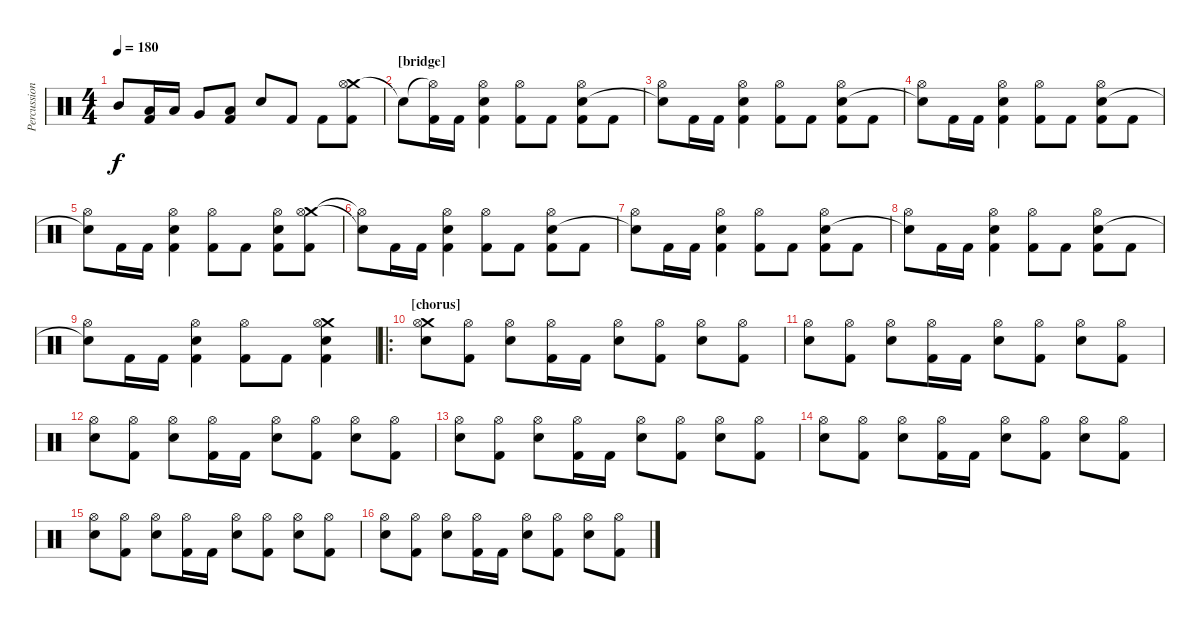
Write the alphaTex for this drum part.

\track ("Percussion" "Percussion") {instrument percussion}
\staff {score}
\articulation defaults
\ts (4 4)
\tempo 180
\clef neutral
\ks c "Mid Tom (hit)".8{dy f}
("Low Tom (hit)" "Kick (hit) 2").16 "Low Tom (hit)".16 "Very Low Tom (hit)".8 ("Low Floor Tom (hit)" "Kick (hit) 2").8 "Electric Snare (hit)".8 "Kick (hit) 2".8 "Kick (hit) 2".8 ("Crash medium (hit)" "Hi-Hat (open)" "Kick (hit) 2").8 |
\section ("" "[bridge]")
"Snare (hit)"{t}.8 ("Hi-Hat (open)"{t} "Kick (hit) 2").16 "Kick (hit) 2".16 ("Hi-Hat (open)" "Electric Snare (hit)" "Kick (hit) 2").4 ("Hi-Hat (open)" "Kick (hit) 2").8 "Kick (hit) 2".8 ("Hi-Hat (open)" "Electric Snare (hit)" "Kick (hit) 2").8 "Kick (hit) 2".8 |
("Hi-Hat (open)" "Snare (hit)"{t}).8 "Kick (hit) 2".16 "Kick (hit) 2".16 ("Hi-Hat (open)" "Electric Snare (hit)" "Kick (hit) 2").4 ("Hi-Hat (open)" "Kick (hit) 2").8 "Kick (hit) 2".8 ("Hi-Hat (open)" "Electric Snare (hit)" "Kick (hit) 2").8 "Kick (hit) 2".8 |
("Hi-Hat (open)" "Snare (hit)"{t}).8 "Kick (hit) 2".16 "Kick (hit) 2".16 ("Hi-Hat (open)" "Electric Snare (hit)" "Kick (hit) 2").4 ("Hi-Hat (open)" "Kick (hit) 2").8 "Kick (hit) 2".8 ("Hi-Hat (open)" "Electric Snare (hit)" "Kick (hit) 2").8 "Kick (hit) 2".8 |
("Hi-Hat (open)" "Snare (hit)"{t}).8 "Kick (hit) 2".16 "Kick (hit) 2".16 ("Hi-Hat (open)" "Electric Snare (hit)" "Kick (hit) 2").4 ("Hi-Hat (open)" "Kick (hit) 2").8 "Kick (hit) 2".8 ("Hi-Hat (open)" "Electric Snare (hit)" "Kick (hit) 2").8 ("Crash medium (hit)" "Hi-Hat (open)" "Kick (hit) 2").8 |
("Hi-Hat (open)"{t} "Snare (hit)"{t}).8 "Kick (hit) 2".16 "Kick (hit) 2".16 ("Hi-Hat (open)" "Electric Snare (hit)" "Kick (hit) 2").4 ("Hi-Hat (open)" "Kick (hit) 2").8 "Kick (hit) 2".8 ("Hi-Hat (open)" "Electric Snare (hit)" "Kick (hit) 2").8 "Kick (hit) 2".8 |
("Hi-Hat (open)" "Snare (hit)"{t}).8 "Kick (hit) 2".16 "Kick (hit) 2".16 ("Hi-Hat (open)" "Electric Snare (hit)" "Kick (hit) 2").4 ("Hi-Hat (open)" "Kick (hit) 2").8 "Kick (hit) 2".8 ("Hi-Hat (open)" "Electric Snare (hit)" "Kick (hit) 2").8 "Kick (hit) 2".8 |
("Hi-Hat (open)" "Snare (hit)"{t}).8 "Kick (hit) 2".16 "Kick (hit) 2".16 ("Hi-Hat (open)" "Electric Snare (hit)" "Kick (hit) 2").4 ("Hi-Hat (open)" "Kick (hit) 2").8 "Kick (hit) 2".8 ("Hi-Hat (open)" "Electric Snare (hit)" "Kick (hit) 2").8 "Kick (hit) 2".8 |
("Hi-Hat (open)" "Snare (hit)"{t}).8 "Kick (hit) 2".16 "Kick (hit) 2".16 ("Hi-Hat (open)" "Electric Snare (hit)" "Kick (hit) 2").4 ("Hi-Hat (open)" "Kick (hit) 2").8 "Kick (hit) 2".8 ("Crash medium (hit)" "Hi-Hat (open)" "Electric Snare (hit)" "Kick (hit) 2").4 |
\ro
\section ("" "[chorus]")
("Crash medium (hit)" "Hi-Hat (open)" "Electric Snare (hit)").8 ("Hi-Hat (open)" "Kick (hit) 2").8 ("Hi-Hat (open)" "Electric Snare (hit)").8 ("Hi-Hat (open)" "Kick (hit) 2").16 "Kick (hit) 2".16 ("Hi-Hat (open)" "Electric Snare (hit)").8 ("Hi-Hat (open)" "Kick (hit) 2").8 ("Hi-Hat (open)" "Electric Snare (hit)").8 ("Hi-Hat (open)" "Kick (hit) 2").8 |
("Hi-Hat (open)" "Electric Snare (hit)").8 ("Hi-Hat (open)" "Kick (hit) 2").8 ("Hi-Hat (open)" "Electric Snare (hit)").8 ("Hi-Hat (open)" "Kick (hit) 2").16 "Kick (hit) 2".16 ("Hi-Hat (open)" "Electric Snare (hit)").8 ("Hi-Hat (open)" "Kick (hit) 2").8 ("Hi-Hat (open)" "Electric Snare (hit)").8 ("Hi-Hat (open)" "Kick (hit) 2").8 |
("Hi-Hat (open)" "Electric Snare (hit)").8 ("Hi-Hat (open)" "Kick (hit) 2").8 ("Hi-Hat (open)" "Electric Snare (hit)").8 ("Hi-Hat (open)" "Kick (hit) 2").16 "Kick (hit) 2".16 ("Hi-Hat (open)" "Electric Snare (hit)").8 ("Hi-Hat (open)" "Kick (hit) 2").8 ("Hi-Hat (open)" "Electric Snare (hit)").8 ("Hi-Hat (open)" "Kick (hit) 2").8 |
("Hi-Hat (open)" "Electric Snare (hit)").8 ("Hi-Hat (open)" "Kick (hit) 2").8 ("Hi-Hat (open)" "Electric Snare (hit)").8 ("Hi-Hat (open)" "Kick (hit) 2").16 "Kick (hit) 2".16 ("Hi-Hat (open)" "Electric Snare (hit)").8 ("Hi-Hat (open)" "Kick (hit) 2").8 ("Hi-Hat (open)" "Electric Snare (hit)").8 ("Hi-Hat (open)" "Kick (hit) 2").8 |
("Hi-Hat (open)" "Electric Snare (hit)").8 ("Hi-Hat (open)" "Kick (hit) 2").8 ("Hi-Hat (open)" "Electric Snare (hit)").8 ("Hi-Hat (open)" "Kick (hit) 2").16 "Kick (hit) 2".16 ("Hi-Hat (open)" "Electric Snare (hit)").8 ("Hi-Hat (open)" "Kick (hit) 2").8 ("Hi-Hat (open)" "Electric Snare (hit)").8 ("Hi-Hat (open)" "Kick (hit) 2").8 |
("Hi-Hat (open)" "Electric Snare (hit)").8 ("Hi-Hat (open)" "Kick (hit) 2").8 ("Hi-Hat (open)" "Electric Snare (hit)").8 ("Hi-Hat (open)" "Kick (hit) 2").16 "Kick (hit) 2".16 ("Hi-Hat (open)" "Electric Snare (hit)").8 ("Hi-Hat (open)" "Kick (hit) 2").8 ("Hi-Hat (open)" "Electric Snare (hit)").8 ("Hi-Hat (open)" "Kick (hit) 2").8 |
("Hi-Hat (open)" "Electric Snare (hit)").8 ("Hi-Hat (open)" "Kick (hit) 2").8 ("Hi-Hat (open)" "Electric Snare (hit)").8 ("Hi-Hat (open)" "Kick (hit) 2").16 "Kick (hit) 2".16 ("Hi-Hat (open)" "Electric Snare (hit)").8 ("Hi-Hat (open)" "Kick (hit) 2").8 ("Hi-Hat (open)" "Electric Snare (hit)").8 ("Hi-Hat (open)" "Kick (hit) 2").8
